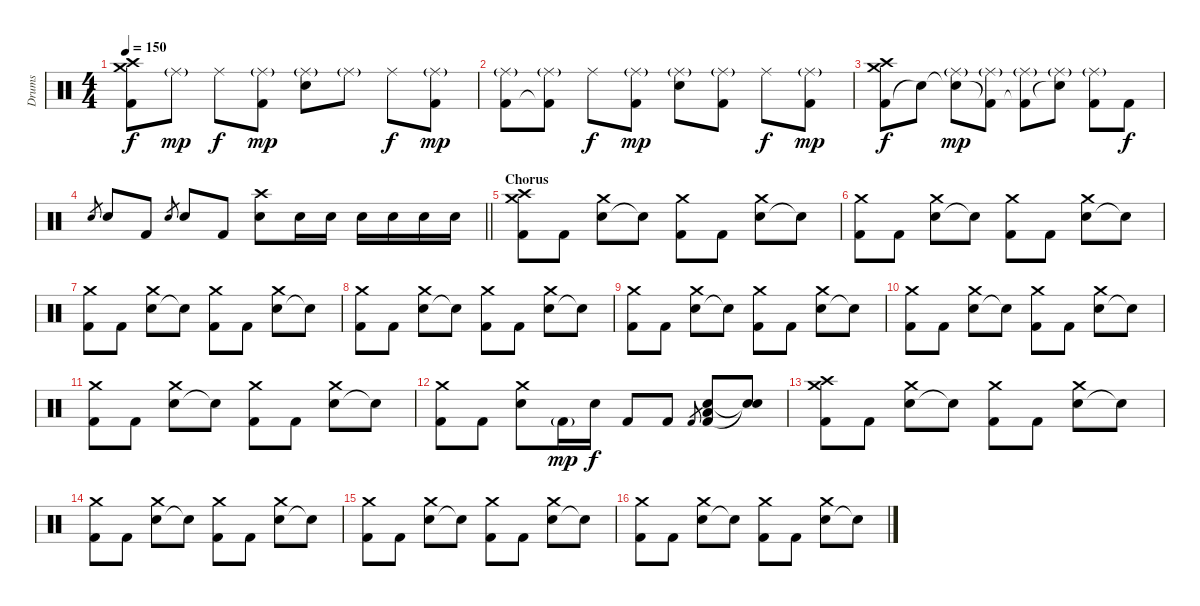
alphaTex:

\track ("Drums" "Drums") {instrument percussion}
\staff {score}
\articulation defaults
\ts (4 4)
\tempo 150
\clef neutral
\ks c
("Kick (hit) 2" "Crash medium (hit)" "Crash high (hit)").8{dy f} "Ride (middle)"{g}.8{dy mp} "Ride (middle)".8{dy f} ("Kick (hit) 2" "Ride (middle)"{g}).8{dy mp} ("Electric Snare (hit)" "Ride (middle)"{g}).8 "Ride (middle)"{g}.8 "Ride (middle)".8{dy f} ("Kick (hit) 2" "Ride (middle)"{g}).8{dy mp} |
("Kick (hit) 2" "Ride (middle)"{g}).8 ("Kick (hit) 2"{t} "Ride (middle)"{g}).8 "Ride (middle)".8{dy f} ("Kick (hit) 2" "Ride (middle)"{g}).8{dy mp} ("Electric Snare (hit)" "Ride (middle)"{g}).8 ("Kick (hit) 2" "Ride (middle)"{g}).8 "Ride (middle)".8{dy f} ("Kick (hit) 2" "Ride (middle)"{g}).8{dy mp} |
("Kick (hit) 2" "Crash medium (hit)" "Crash high (hit)").8{dy f} "Snare (hit)"{t}.8 ("Snare (hit)"{t} "Ride (middle)"{g}).8{dy mp} ("Kick (hit) 2"{t} "Ride (middle)"{g}).8 ("Kick (hit) 2"{t} "Ride (middle)"{g}).8 ("Electric Snare (hit)"{t} "Ride (middle)"{g}).8 ("Kick (hit) 2" "Ride (middle)"{g}).8 "Kick (hit) 2".8{dy f} |
\barLineRight lightlight "Electric Snare (hit)".8{gr} "Electric Snare (hit)".8 "Kick (hit) 2".8 "Electric Snare (hit)".8{gr} "Electric Snare (hit)".8 "Kick (hit) 2".8
("Electric Snare (hit)" "Crash high (hit)").8 "Electric Snare (hit)".16 "Electric Snare (hit)".16 "Electric Snare (hit)".16 "Electric Snare (hit)".16 "Electric Snare (hit)".16 "Electric Snare (hit)".16 |
\section ("" "Chorus")
("Kick (hit) 2" "Crash medium (hit)" "Crash high (hit)").8 "Kick (hit) 2".8 ("Electric Snare (hit)" "Crash medium (hit)").8 "Snare (hit)"{t}.8 ("Kick (hit) 2" "Crash medium (hit)").8 "Kick (hit) 2".8 ("Electric Snare (hit)" "Crash medium (hit)").8 "Snare (hit)"{t}.8 |
("Kick (hit) 2" "Crash medium (hit)").8 "Kick (hit) 2".8 ("Electric Snare (hit)" "Crash medium (hit)").8 "Snare (hit)"{t}.8 ("Kick (hit) 2" "Crash medium (hit)").8 "Kick (hit) 2".8 ("Electric Snare (hit)" "Crash medium (hit)").8 "Snare (hit)"{t}.8 |
("Kick (hit) 2" "Crash medium (hit)").8 "Kick (hit) 2".8 ("Electric Snare (hit)" "Crash medium (hit)").8 "Snare (hit)"{t}.8 ("Kick (hit) 2" "Crash medium (hit)").8 "Kick (hit) 2".8 ("Electric Snare (hit)" "Crash medium (hit)").8 "Snare (hit)"{t}.8 |
("Kick (hit) 2" "Crash medium (hit)").8 "Kick (hit) 2".8 ("Electric Snare (hit)" "Crash medium (hit)").8 "Snare (hit)"{t}.8 ("Kick (hit) 2" "Crash medium (hit)").8 "Kick (hit) 2".8 ("Electric Snare (hit)" "Crash medium (hit)").8 "Snare (hit)"{t}.8 |
("Kick (hit) 2" "Crash medium (hit)").8 "Kick (hit) 2".8 ("Electric Snare (hit)" "Crash medium (hit)").8 "Snare (hit)"{t}.8 ("Kick (hit) 2" "Crash medium (hit)").8 "Kick (hit) 2".8 ("Electric Snare (hit)" "Crash medium (hit)").8 "Snare (hit)"{t}.8 |
("Kick (hit) 2" "Crash medium (hit)").8 "Kick (hit) 2".8 ("Electric Snare (hit)" "Crash medium (hit)").8 "Snare (hit)"{t}.8 ("Kick (hit) 2" "Crash medium (hit)").8 "Kick (hit) 2".8 ("Electric Snare (hit)" "Crash medium (hit)").8 "Snare (hit)"{t}.8 |
("Kick (hit) 2" "Crash medium (hit)").8 "Kick (hit) 2".8 ("Electric Snare (hit)" "Crash medium (hit)").8 "Snare (hit)"{t}.8 ("Kick (hit) 2" "Crash medium (hit)").8 "Kick (hit) 2".8 ("Electric Snare (hit)" "Crash medium (hit)").8 "Snare (hit)"{t}.8 |
("Kick (hit) 2" "Crash medium (hit)").8 "Kick (hit) 2".8 ("Electric Snare (hit)" "Crash medium (hit)").8 "Kick (hit) 2"{g}.16{dy mp} "Electric Snare (hit)".16{dy f} "Kick (hit) 2".8 "Kick (hit) 2".8 "Kick (hit) 2".8{gr} ("Electric Snare (hit)" "Kick (hit) 2" "Low Floor Tom (hit)").8 ("Snare (hit)"{t} "Snare (hit)"{t}).8 |
("Kick (hit) 2" "Crash medium (hit)" "Crash high (hit)").8 "Kick (hit) 2".8 ("Electric Snare (hit)" "Crash medium (hit)").8 "Snare (hit)"{t}.8 ("Kick (hit) 2" "Crash medium (hit)").8 "Kick (hit) 2".8 ("Electric Snare (hit)" "Crash medium (hit)").8 "Snare (hit)"{t}.8 |
("Kick (hit) 2" "Crash medium (hit)").8 "Kick (hit) 2".8 ("Electric Snare (hit)" "Crash medium (hit)").8 "Snare (hit)"{t}.8 ("Kick (hit) 2" "Crash medium (hit)").8 "Kick (hit) 2".8 ("Electric Snare (hit)" "Crash medium (hit)").8 "Snare (hit)"{t}.8 |
("Kick (hit) 2" "Crash medium (hit)").8 "Kick (hit) 2".8 ("Electric Snare (hit)" "Crash medium (hit)").8 "Snare (hit)"{t}.8 ("Kick (hit) 2" "Crash medium (hit)").8 "Kick (hit) 2".8 ("Electric Snare (hit)" "Crash medium (hit)").8 "Snare (hit)"{t}.8 |
("Kick (hit) 2" "Crash medium (hit)").8 "Kick (hit) 2".8 ("Electric Snare (hit)" "Crash medium (hit)").8 "Snare (hit)"{t}.8 ("Kick (hit) 2" "Crash medium (hit)").8 "Kick (hit) 2".8 ("Electric Snare (hit)" "Crash medium (hit)").8 "Snare (hit)"{t}.8
